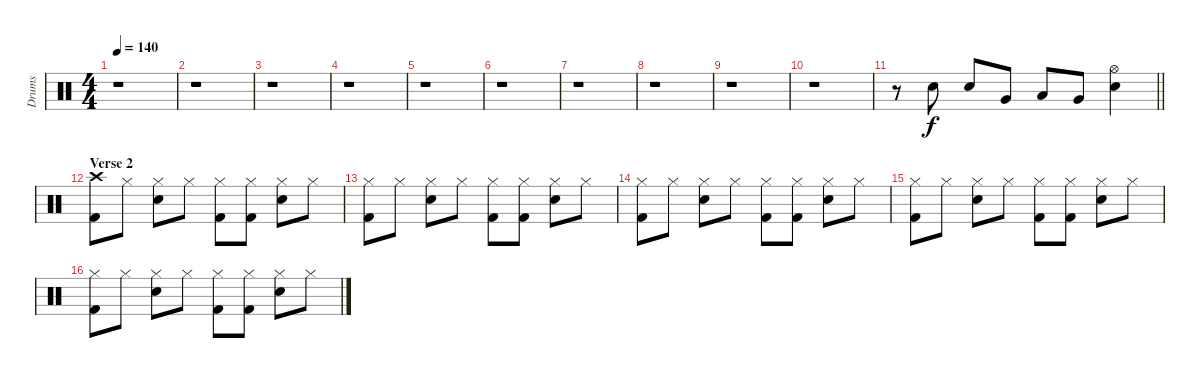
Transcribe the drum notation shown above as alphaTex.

\track ("Drums" "Drums") {instrument percussion}
\staff {score}
\articulation defaults
\ts (4 4)
\tempo 140
\clef neutral
\ks c
r.1{dy f} |
r.1 |
r.1 |
r.1 |
r.1 |
r.1 |
r.1 |
r.1 |
r.1 |
r.1 |
\barLineRight lightlight
r.8 "Electric Snare (hit)".8 "Electric Snare (hit)".8 "Very Low Tom (hit)".8 "Low Tom (hit)".8 "Very Low Tom (hit)".8 ("Hi-Hat (open)" "Electric Snare (hit)").4 |
\section ("" "Verse 2")
("Crash high (hit)" "Kick (hit) 2").8 "Hi-Hat (closed)".8 ("Hi-Hat (closed)" "Electric Snare (hit)").8 "Hi-Hat (closed)".8 ("Hi-Hat (closed)" "Kick (hit) 2").8 ("Hi-Hat (closed)" "Kick (hit) 2").8 ("Hi-Hat (closed)" "Electric Snare (hit)").8 "Hi-Hat (closed)".8 |
("Hi-Hat (closed)" "Kick (hit) 2").8 "Hi-Hat (closed)".8 ("Hi-Hat (closed)" "Electric Snare (hit)").8 "Hi-Hat (closed)".8 ("Hi-Hat (closed)" "Kick (hit) 2").8 ("Hi-Hat (closed)" "Kick (hit) 2").8 ("Hi-Hat (closed)" "Electric Snare (hit)").8 "Hi-Hat (closed)".8 |
("Hi-Hat (closed)" "Kick (hit) 2").8 "Hi-Hat (closed)".8 ("Hi-Hat (closed)" "Electric Snare (hit)").8 "Hi-Hat (closed)".8 ("Hi-Hat (closed)" "Kick (hit) 2").8 ("Hi-Hat (closed)" "Kick (hit) 2").8 ("Hi-Hat (closed)" "Electric Snare (hit)").8 "Hi-Hat (closed)".8 |
("Hi-Hat (closed)" "Kick (hit) 2").8 "Hi-Hat (closed)".8 ("Hi-Hat (closed)" "Electric Snare (hit)").8 "Hi-Hat (closed)".8 ("Hi-Hat (closed)" "Kick (hit) 2").8 ("Hi-Hat (closed)" "Kick (hit) 2").8 ("Hi-Hat (closed)" "Electric Snare (hit)").8 "Hi-Hat (closed)".8 |
("Hi-Hat (closed)" "Kick (hit) 2").8 "Hi-Hat (closed)".8 ("Hi-Hat (closed)" "Electric Snare (hit)").8 "Hi-Hat (closed)".8 ("Hi-Hat (closed)" "Kick (hit) 2").8 ("Hi-Hat (closed)" "Kick (hit) 2").8 ("Hi-Hat (closed)" "Electric Snare (hit)").8 "Hi-Hat (closed)".8
